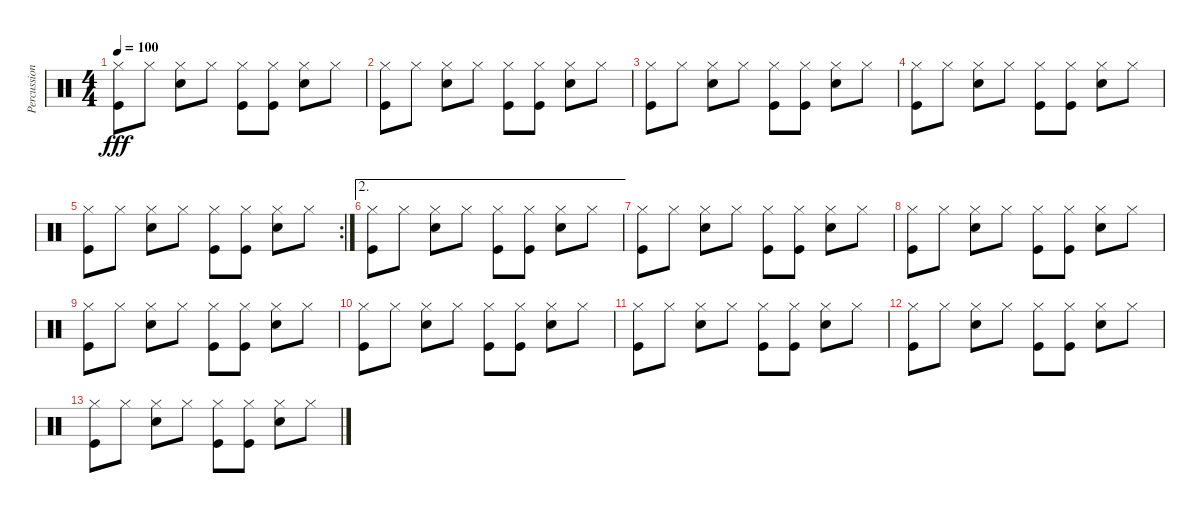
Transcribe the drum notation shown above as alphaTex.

\track ("Percussion" "Percussion") {instrument percussion}
\staff {score}
\articulation defaults
\ts (4 4)
\tempo 100
\clef neutral
\ks c
("Hi-Hat (closed)" "Kick (hit)").8{dy fff} "Hi-Hat (closed)".8 ("Hi-Hat (closed)" "Snare (hit) 2").8 "Hi-Hat (closed)".8 ("Hi-Hat (closed)" "Kick (hit)").8 ("Hi-Hat (closed)" "Kick (hit)").8 ("Hi-Hat (closed)" "Snare (hit) 2").8 "Hi-Hat (closed)".8 |
("Hi-Hat (closed)" "Kick (hit)").8 "Hi-Hat (closed)".8 ("Hi-Hat (closed)" "Snare (hit) 2").8 "Hi-Hat (closed)".8 ("Hi-Hat (closed)" "Kick (hit)").8 ("Hi-Hat (closed)" "Kick (hit)").8 ("Hi-Hat (closed)" "Snare (hit) 2").8 "Hi-Hat (closed)".8 |
("Hi-Hat (closed)" "Kick (hit)").8 "Hi-Hat (closed)".8 ("Hi-Hat (closed)" "Snare (hit) 2").8 "Hi-Hat (closed)".8 ("Hi-Hat (closed)" "Kick (hit)").8 ("Hi-Hat (closed)" "Kick (hit)").8 ("Hi-Hat (closed)" "Snare (hit) 2").8 "Hi-Hat (closed)".8 |
("Hi-Hat (closed)" "Kick (hit)").8 "Hi-Hat (closed)".8 ("Hi-Hat (closed)" "Snare (hit) 2").8 "Hi-Hat (closed)".8 ("Hi-Hat (closed)" "Kick (hit)").8 ("Hi-Hat (closed)" "Kick (hit)").8 ("Hi-Hat (closed)" "Snare (hit) 2").8 "Hi-Hat (closed)".8 |
\rc 2
("Hi-Hat (closed)" "Kick (hit)").8 "Hi-Hat (closed)".8 ("Hi-Hat (closed)" "Snare (hit) 2").8 "Hi-Hat (closed)".8 ("Hi-Hat (closed)" "Kick (hit)").8 ("Hi-Hat (closed)" "Kick (hit)").8 ("Hi-Hat (closed)" "Snare (hit) 2").8 "Hi-Hat (closed)".8 |
\ae 2
("Hi-Hat (closed)" "Kick (hit)").8 "Hi-Hat (closed)".8 ("Hi-Hat (closed)" "Snare (hit) 2").8 "Hi-Hat (closed)".8 ("Hi-Hat (closed)" "Kick (hit)").8 ("Hi-Hat (closed)" "Kick (hit)").8 ("Hi-Hat (closed)" "Snare (hit) 2").8 "Hi-Hat (closed)".8 |
("Hi-Hat (closed)" "Kick (hit)").8 "Hi-Hat (closed)".8 ("Hi-Hat (closed)" "Snare (hit) 2").8 "Hi-Hat (closed)".8 ("Hi-Hat (closed)" "Kick (hit)").8 ("Hi-Hat (closed)" "Kick (hit)").8 ("Hi-Hat (closed)" "Snare (hit) 2").8 "Hi-Hat (closed)".8 |
("Hi-Hat (closed)" "Kick (hit)").8 "Hi-Hat (closed)".8 ("Hi-Hat (closed)" "Snare (hit) 2").8 "Hi-Hat (closed)".8 ("Hi-Hat (closed)" "Kick (hit)").8 ("Hi-Hat (closed)" "Kick (hit)").8 ("Hi-Hat (closed)" "Snare (hit) 2").8 "Hi-Hat (closed)".8 |
("Hi-Hat (closed)" "Kick (hit)").8 "Hi-Hat (closed)".8 ("Hi-Hat (closed)" "Snare (hit) 2").8 "Hi-Hat (closed)".8 ("Hi-Hat (closed)" "Kick (hit)").8 ("Hi-Hat (closed)" "Kick (hit)").8 ("Hi-Hat (closed)" "Snare (hit) 2").8 "Hi-Hat (closed)".8 |
("Hi-Hat (closed)" "Kick (hit)").8 "Hi-Hat (closed)".8 ("Hi-Hat (closed)" "Snare (hit) 2").8 "Hi-Hat (closed)".8 ("Hi-Hat (closed)" "Kick (hit)").8 ("Hi-Hat (closed)" "Kick (hit)").8 ("Hi-Hat (closed)" "Snare (hit) 2").8 "Hi-Hat (closed)".8 |
("Hi-Hat (closed)" "Kick (hit)").8 "Hi-Hat (closed)".8 ("Hi-Hat (closed)" "Snare (hit) 2").8 "Hi-Hat (closed)".8 ("Hi-Hat (closed)" "Kick (hit)").8 ("Hi-Hat (closed)" "Kick (hit)").8 ("Hi-Hat (closed)" "Snare (hit) 2").8 "Hi-Hat (closed)".8 |
("Hi-Hat (closed)" "Kick (hit)").8 "Hi-Hat (closed)".8 ("Hi-Hat (closed)" "Snare (hit) 2").8 "Hi-Hat (closed)".8 ("Hi-Hat (closed)" "Kick (hit)").8 ("Hi-Hat (closed)" "Kick (hit)").8 ("Hi-Hat (closed)" "Snare (hit) 2").8 "Hi-Hat (closed)".8 |
("Hi-Hat (closed)" "Kick (hit)").8 "Hi-Hat (closed)".8 ("Hi-Hat (closed)" "Snare (hit) 2").8 "Hi-Hat (closed)".8 ("Hi-Hat (closed)" "Kick (hit)").8 ("Hi-Hat (closed)" "Kick (hit)").8 ("Hi-Hat (closed)" "Snare (hit) 2").8 "Hi-Hat (closed)".8
